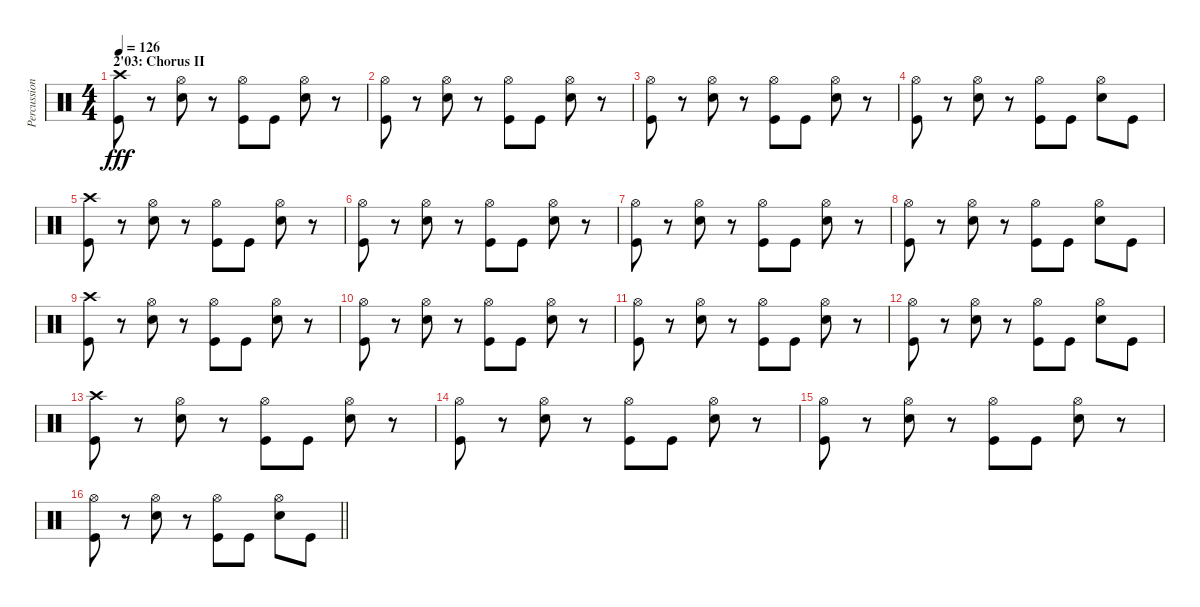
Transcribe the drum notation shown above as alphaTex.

\track ("Percussions" "Percussion") {instrument percussion}
\staff {score}
\articulation defaults
\ts (4 4)
\section ("" "2'03: Chorus II")
\tempo 126
\clef neutral
\ks c
("Crash high (hit)" "Kick (hit)").8{dy fff} r.8 ("Hi-Hat (open)" "Electric Snare (hit)").8 r.8 ("Hi-Hat (open)" "Kick (hit)").8 "Kick (hit)".8 ("Hi-Hat (open)" "Electric Snare (hit)").8 r.8 |
("Hi-Hat (open)" "Kick (hit)").8 r.8 ("Hi-Hat (open)" "Electric Snare (hit)").8 r.8 ("Hi-Hat (open)" "Kick (hit)").8 "Kick (hit)".8 ("Hi-Hat (open)" "Electric Snare (hit)").8 r.8 |
("Hi-Hat (open)" "Kick (hit)").8 r.8 ("Hi-Hat (open)" "Electric Snare (hit)").8 r.8 ("Hi-Hat (open)" "Kick (hit)").8 "Kick (hit)".8 ("Hi-Hat (open)" "Electric Snare (hit)").8 r.8 |
("Hi-Hat (open)" "Kick (hit)").8 r.8 ("Hi-Hat (open)" "Electric Snare (hit)").8 r.8 ("Hi-Hat (open)" "Kick (hit)").8 "Kick (hit)".8 ("Hi-Hat (open)" "Electric Snare (hit)").8 "Kick (hit)".8 |
("Crash high (hit)" "Kick (hit)").8 r.8 ("Hi-Hat (open)" "Electric Snare (hit)").8 r.8 ("Hi-Hat (open)" "Kick (hit)").8 "Kick (hit)".8 ("Hi-Hat (open)" "Electric Snare (hit)").8 r.8 |
("Hi-Hat (open)" "Kick (hit)").8 r.8 ("Hi-Hat (open)" "Electric Snare (hit)").8 r.8 ("Hi-Hat (open)" "Kick (hit)").8 "Kick (hit)".8 ("Hi-Hat (open)" "Electric Snare (hit)").8 r.8 |
("Hi-Hat (open)" "Kick (hit)").8 r.8 ("Hi-Hat (open)" "Electric Snare (hit)").8 r.8 ("Hi-Hat (open)" "Kick (hit)").8 "Kick (hit)".8 ("Hi-Hat (open)" "Electric Snare (hit)").8 r.8 |
("Hi-Hat (open)" "Kick (hit)").8 r.8 ("Hi-Hat (open)" "Electric Snare (hit)").8 r.8 ("Hi-Hat (open)" "Kick (hit)").8 "Kick (hit)".8 ("Hi-Hat (open)" "Electric Snare (hit)").8 "Kick (hit)".8 |
("Crash high (hit)" "Kick (hit)").8 r.8 ("Hi-Hat (open)" "Electric Snare (hit)").8 r.8 ("Hi-Hat (open)" "Kick (hit)").8 "Kick (hit)".8 ("Hi-Hat (open)" "Electric Snare (hit)").8 r.8 |
("Hi-Hat (open)" "Kick (hit)").8 r.8 ("Hi-Hat (open)" "Electric Snare (hit)").8 r.8 ("Hi-Hat (open)" "Kick (hit)").8 "Kick (hit)".8 ("Hi-Hat (open)" "Electric Snare (hit)").8 r.8 |
("Hi-Hat (open)" "Kick (hit)").8 r.8 ("Hi-Hat (open)" "Electric Snare (hit)").8 r.8 ("Hi-Hat (open)" "Kick (hit)").8 "Kick (hit)".8 ("Hi-Hat (open)" "Electric Snare (hit)").8 r.8 |
("Hi-Hat (open)" "Kick (hit)").8 r.8 ("Hi-Hat (open)" "Electric Snare (hit)").8 r.8 ("Hi-Hat (open)" "Kick (hit)").8 "Kick (hit)".8 ("Hi-Hat (open)" "Electric Snare (hit)").8 "Kick (hit)".8 |
("Crash high (hit)" "Kick (hit)").8 r.8 ("Hi-Hat (open)" "Electric Snare (hit)").8 r.8 ("Hi-Hat (open)" "Kick (hit)").8 "Kick (hit)".8 ("Hi-Hat (open)" "Electric Snare (hit)").8 r.8 |
("Hi-Hat (open)" "Kick (hit)").8 r.8 ("Hi-Hat (open)" "Electric Snare (hit)").8 r.8 ("Hi-Hat (open)" "Kick (hit)").8 "Kick (hit)".8 ("Hi-Hat (open)" "Electric Snare (hit)").8 r.8 |
("Hi-Hat (open)" "Kick (hit)").8 r.8 ("Hi-Hat (open)" "Electric Snare (hit)").8 r.8 ("Hi-Hat (open)" "Kick (hit)").8 "Kick (hit)".8 ("Hi-Hat (open)" "Electric Snare (hit)").8 r.8 |
\barLineRight lightlight
("Hi-Hat (open)" "Kick (hit)").8 r.8 ("Hi-Hat (open)" "Electric Snare (hit)").8 r.8 ("Hi-Hat (open)" "Kick (hit)").8 "Kick (hit)".8 ("Hi-Hat (open)" "Electric Snare (hit)").8 "Kick (hit)".8
